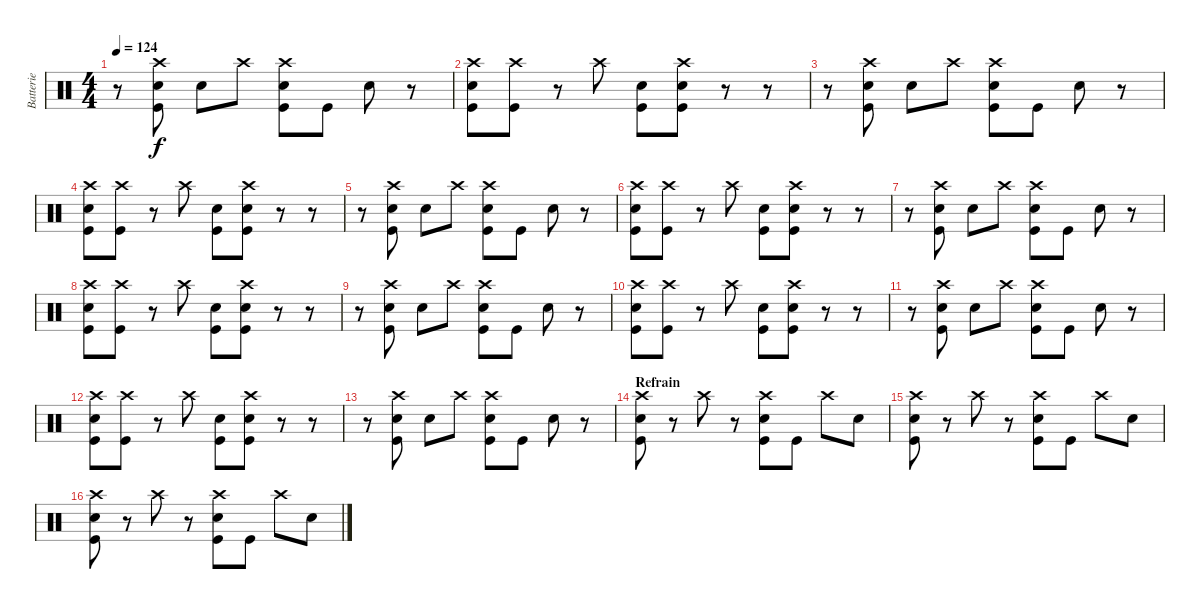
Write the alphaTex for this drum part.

\track ("Batterie" "Batterie") {instrument percussion}
\staff {score}
\articulation defaults
\ts (4 4)
\tempo 124
\clef neutral
\ks c
r.8{dy f} ("Crash high (hit)" "Snare (hit) 2" "Kick (hit)").8 "Snare (hit) 2".8 "Crash high (hit)".8 ("Crash high (hit)" "Snare (hit) 2" "Kick (hit)").8 "Kick (hit)".8 "Snare (hit) 2".8 r.8 |
("Crash high (hit)" "Snare (hit) 2" "Kick (hit)").8 ("Crash high (hit)" "Kick (hit)").8 r.8 "Crash high (hit)".8 ("Snare (hit) 2" "Kick (hit)").8 ("Crash high (hit)" "Snare (hit) 2" "Kick (hit)").8 r.8 r.8 |
r.8 ("Crash high (hit)" "Snare (hit) 2" "Kick (hit)").8 "Snare (hit) 2".8 "Crash high (hit)".8 ("Crash high (hit)" "Snare (hit) 2" "Kick (hit)").8 "Kick (hit)".8 "Snare (hit) 2".8 r.8 |
("Crash high (hit)" "Snare (hit) 2" "Kick (hit)").8 ("Crash high (hit)" "Kick (hit)").8 r.8 "Crash high (hit)".8 ("Snare (hit) 2" "Kick (hit)").8 ("Crash high (hit)" "Snare (hit) 2" "Kick (hit)").8 r.8 r.8 |
r.8 ("Crash high (hit)" "Snare (hit) 2" "Kick (hit)").8 "Snare (hit) 2".8 "Crash high (hit)".8 ("Crash high (hit)" "Snare (hit) 2" "Kick (hit)").8 "Kick (hit)".8 "Snare (hit) 2".8 r.8 |
("Crash high (hit)" "Snare (hit) 2" "Kick (hit)").8 ("Crash high (hit)" "Kick (hit)").8 r.8 "Crash high (hit)".8 ("Snare (hit) 2" "Kick (hit)").8 ("Crash high (hit)" "Snare (hit) 2" "Kick (hit)").8 r.8 r.8 |
r.8 ("Crash high (hit)" "Snare (hit) 2" "Kick (hit)").8 "Snare (hit) 2".8 "Crash high (hit)".8 ("Crash high (hit)" "Snare (hit) 2" "Kick (hit)").8 "Kick (hit)".8 "Snare (hit) 2".8 r.8 |
("Crash high (hit)" "Snare (hit) 2" "Kick (hit)").8 ("Crash high (hit)" "Kick (hit)").8 r.8 "Crash high (hit)".8 ("Snare (hit) 2" "Kick (hit)").8 ("Crash high (hit)" "Snare (hit) 2" "Kick (hit)").8 r.8 r.8 |
r.8 ("Crash high (hit)" "Snare (hit) 2" "Kick (hit)").8 "Snare (hit) 2".8 "Crash high (hit)".8 ("Crash high (hit)" "Snare (hit) 2" "Kick (hit)").8 "Kick (hit)".8 "Snare (hit) 2".8 r.8 |
("Crash high (hit)" "Snare (hit) 2" "Kick (hit)").8 ("Crash high (hit)" "Kick (hit)").8 r.8 "Crash high (hit)".8 ("Snare (hit) 2" "Kick (hit)").8 ("Crash high (hit)" "Snare (hit) 2" "Kick (hit)").8 r.8 r.8 |
r.8 ("Crash high (hit)" "Snare (hit) 2" "Kick (hit)").8 "Snare (hit) 2".8 "Crash high (hit)".8 ("Crash high (hit)" "Snare (hit) 2" "Kick (hit)").8 "Kick (hit)".8 "Snare (hit) 2".8 r.8 |
("Crash high (hit)" "Snare (hit) 2" "Kick (hit)").8 ("Crash high (hit)" "Kick (hit)").8 r.8 "Crash high (hit)".8 ("Snare (hit) 2" "Kick (hit)").8 ("Crash high (hit)" "Snare (hit) 2" "Kick (hit)").8 r.8 r.8 |
r.8 ("Crash high (hit)" "Snare (hit) 2" "Kick (hit)").8 "Snare (hit) 2".8 "Crash high (hit)".8 ("Crash high (hit)" "Snare (hit) 2" "Kick (hit)").8 "Kick (hit)".8 "Snare (hit) 2".8 r.8 |
\section ("" "Refrain")
("Crash high (hit)" "Snare (hit) 2" "Kick (hit)").8 r.8 "Crash high (hit)".8 r.8 ("Crash high (hit)" "Snare (hit) 2" "Kick (hit)").8 "Kick (hit)".8 "Crash high (hit)".8 "Snare (hit) 2".8 |
("Crash high (hit)" "Snare (hit) 2" "Kick (hit)").8 r.8 "Crash high (hit)".8 r.8 ("Crash high (hit)" "Snare (hit) 2" "Kick (hit)").8 "Kick (hit)".8 "Crash high (hit)".8 "Snare (hit) 2".8 |
("Crash high (hit)" "Snare (hit) 2" "Kick (hit)").8 r.8 "Crash high (hit)".8 r.8 ("Crash high (hit)" "Snare (hit) 2" "Kick (hit)").8 "Kick (hit)".8 "Crash high (hit)".8 "Snare (hit) 2".8
